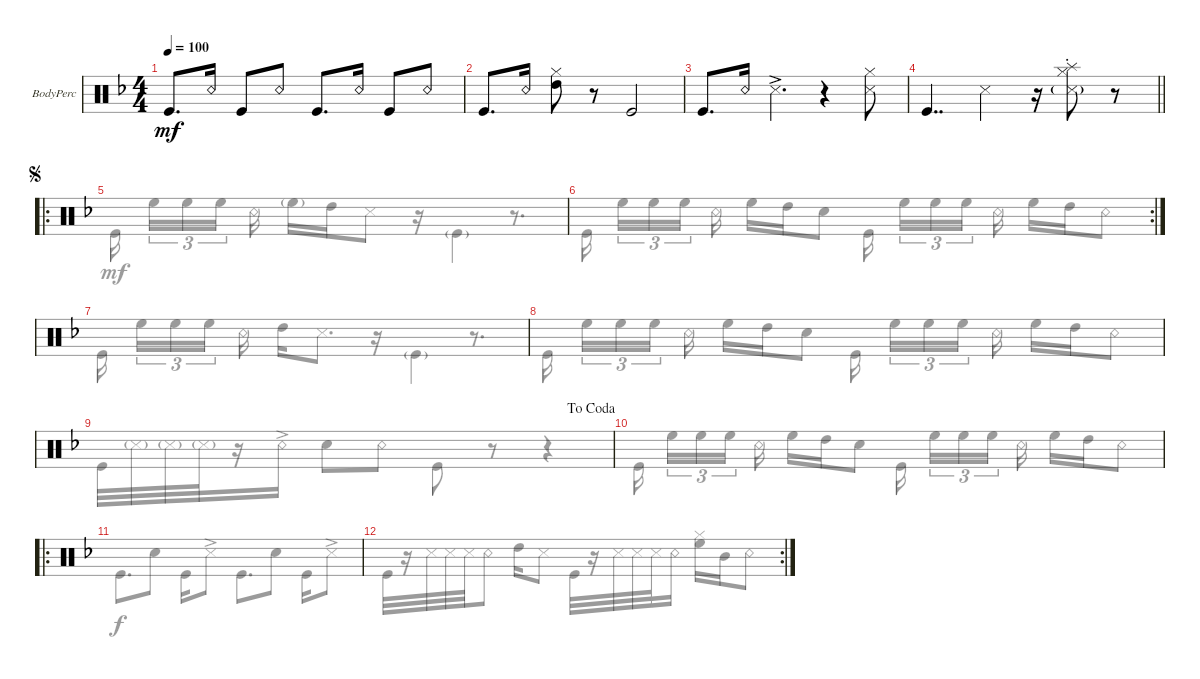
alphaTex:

\defaultSystemsLayout 4
\firstSystemTrackNameOrientation horizontal
\otherSystemsTrackNameOrientation horizontal
\track ("Percussion" "BodyPerc") {instrument percussion}
\staff {score}
\articulation defaults
\voice
\ts (4 4)
\scale
0.282163
\tempo 100
\accidentals auto
\clef neutral
\ottava regular
\simile none
\ks dminor "Kick (hit)".8{d dy mf} "Snare (rim shot)".16 "Kick (hit)".8 "Snare (rim shot)".8 "Kick (hit)".8{d} "Snare (rim shot)".16 "Kick (hit)".8 "Snare (rim shot)".8
|
\scale
0.359184 "Kick (hit)".8{d} "Snare (rim shot)".16 ("High Tom (hit)" "Hi-Hat (closed)").8 r.8 "Kick (hit)".2 |
"Kick (hit)".8{d} "Snare (rim shot)".16 "Snare (side stick) 3"{ac}.4{d} r.4 ("Snare (side stick) 3" "Hi-Hat (closed)").8 |
\barLineRight lightlight "Kick (hit)".4{dd} "Snare (side stick) 3".4
r.16 ("Snare (side stick) 3"{g} "Hi-Hat (closed)" "Splash (hit)"{st}).8 r.8 |
\ro
\jump segno
|
\rc 2
|
|
|
\scale
0.569746
\jump dacoda
|
\scale
0.43018 |
\ro
\scale
0.455214 |
\rc 2
\scale
0.544827 |
|
|
|
\voice
\clef neutral
\ottava regular
\simile none
\ks dminor
|
|
|
\barLineRight lightlight
|
"Kick (hit)".16 "High Floor Tom (hit)".16{tu (3 2)} "High Floor Tom (hit)".16{tu (3 2)} "High Floor Tom (hit)".16{tu (3 2)} "Snare (rim shot)".16 "High Floor Tom (hit)"{g}.16 "High Tom (hit)".16 "Snare (side stick) 3".8 r.16 "Kick (hit)"{g}.4 r.8{d} |
"Kick (hit)".16 "High Floor Tom (hit)".16{tu (3 2)} "High Floor Tom (hit)".16{tu (3 2)} "High Floor Tom (hit)".16{tu (3 2)} "Snare (rim shot)".16 "High Floor Tom (hit)".16 "High Tom (hit)".16 "Snare (hit) 2".8 "Kick (hit)".16 "High Floor Tom (hit)".16{tu (3 2)} "High Floor Tom (hit)".16{tu (3 2)} "High Floor Tom (hit)".16{tu (3 2)} "Snare (rim shot)".16 "High Floor Tom (hit)".16 "High Tom (hit)".16 "Snare (rim shot)".8 |
"Kick (hit)".16 "High Floor Tom (hit)".16{tu (3 2)} "High Floor Tom (hit)".16{tu (3 2)} "High Floor Tom (hit)".16{tu (3 2)} "Snare (rim shot)".16 "High Tom (hit)".16 "Snare (side stick) 3".8{d} r.16 "Kick (hit)"{g}.4 r.8{d} |
"Kick (hit)".16 "High Floor Tom (hit)".16{tu (3 2)} "High Floor Tom (hit)".16{tu (3 2)} "High Floor Tom (hit)".16{tu (3 2)} "Snare (rim shot)".16 "High Floor Tom (hit)".16 "High Tom (hit)".16 "Snare (hit) 2".8 "Kick (hit)".16 "High Floor Tom (hit)".16{tu (3 2)} "High Floor Tom (hit)".16{tu (3 2)} "High Floor Tom (hit)".16{tu (3 2)} "Snare (rim shot)".16 "High Floor Tom (hit)".16 "High Tom (hit)".16 "Snare (rim shot)".8 |
"Kick (hit)".32 "Snare (side stick) 3"{g}.32 "Snare (side stick) 3"{g}.32 "Snare (side stick) 3"{g}.32 r.16 "Snare (rim shot)"{ac}.16 "Snare (hit) 2".8 "Snare (rim shot)".8 "Kick (hit)".8 r.8 r.4 |
"Kick (hit)".16 "High Floor Tom (hit)".16{tu (3 2)} "High Floor Tom (hit)".16{tu (3 2)} "High Floor Tom (hit)".16{tu (3 2)} "Snare (rim shot)".16 "High Floor Tom (hit)".16 "High Tom (hit)".16 "Snare (hit) 2".8 "Kick (hit)".16 "High Floor Tom (hit)".16{tu (3 2)} "High Floor Tom (hit)".16{tu (3 2)} "High Floor Tom (hit)".16{tu (3 2)} "Snare (rim shot)".16 "High Floor Tom (hit)".16 "High Tom (hit)".16 "Snare (rim shot)".8 |
"Kick (hit)".8{d dy f} "Snare (hit) 2".8 "Kick (hit)".16 "Snare (side stick) 3"{ac}.8 "Kick (hit)".8{d} "Snare (hit) 2".8 "Kick (hit)".16 "Snare (side stick) 3"{ac}.8 |
"Kick (hit)".32 r.16 "Snare (side stick) 3".32 "Snare (side stick) 3".32 "Snare (side stick) 3".32 "Snare (rim shot)".8 "High Tom (hit)".16 "Snare (side stick) 3".8 "Kick (hit)".32 r.16 "Snare (side stick) 3".32 "Snare (side stick) 3".32 "Snare (side stick) 3".32 "Snare (rim shot)".16 ("High Floor Tom (hit)" "Hi-Hat (closed)").16 "Mid Tom (hit)".16 "Snare (rim shot)".8 |
|
|
|
